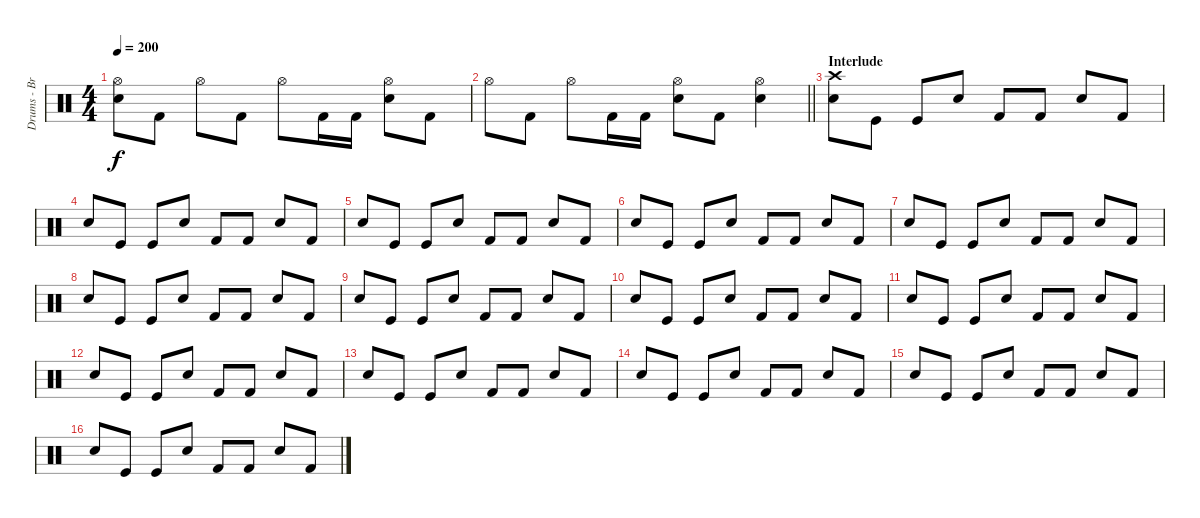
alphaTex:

\track ("Drums - Brandon Barnes" "Drums - Br") {instrument percussion}
\staff {score}
\articulation defaults
\ts (4 4)
\tempo 200
\clef neutral
\ks c
("Electric Snare (hit)" "Hi-Hat (open)").8{dy f} "Kick (hit) 2".8 "Hi-Hat (open)".8 "Kick (hit) 2".8 "Hi-Hat (open)".8 "Kick (hit) 2".16 "Kick (hit) 2".16 ("Electric Snare (hit)" "Hi-Hat (open)").8 "Kick (hit) 2".8 |
\barLineRight lightlight "Hi-Hat (open)".8 "Kick (hit) 2".8 "Hi-Hat (open)".8 "Kick (hit) 2".16 "Kick (hit) 2".16
("Electric Snare (hit)" "Hi-Hat (open)").8 "Kick (hit) 2".8 ("Snare (hit) 2" "Hi-Hat (open)").4 |
\section ("" "Interlude")
("Snare (hit) 2" "Crash high (hit)").8 "Kick (hit)".8 "Kick (hit)".8 "Snare (hit) 2".8 "Kick (hit) 2".8 "Kick (hit) 2".8 "Snare (hit) 2".8 "Kick (hit) 2".8 |
"Snare (hit) 2".8 "Kick (hit)".8 "Kick (hit)".8 "Snare (hit) 2".8 "Kick (hit) 2".8 "Kick (hit) 2".8 "Snare (hit) 2".8 "Kick (hit) 2".8 |
"Snare (hit) 2".8 "Kick (hit)".8 "Kick (hit)".8 "Snare (hit) 2".8 "Kick (hit) 2".8 "Kick (hit) 2".8 "Snare (hit) 2".8 "Kick (hit) 2".8 |
"Snare (hit) 2".8 "Kick (hit)".8 "Kick (hit)".8 "Snare (hit) 2".8 "Kick (hit) 2".8 "Kick (hit) 2".8 "Snare (hit) 2".8 "Kick (hit) 2".8 |
"Snare (hit) 2".8 "Kick (hit)".8 "Kick (hit)".8 "Snare (hit) 2".8 "Kick (hit) 2".8 "Kick (hit) 2".8 "Snare (hit) 2".8 "Kick (hit) 2".8 |
"Snare (hit) 2".8 "Kick (hit)".8 "Kick (hit)".8 "Snare (hit) 2".8 "Kick (hit) 2".8 "Kick (hit) 2".8 "Snare (hit) 2".8 "Kick (hit) 2".8 |
"Snare (hit) 2".8 "Kick (hit)".8 "Kick (hit)".8 "Snare (hit) 2".8 "Kick (hit) 2".8 "Kick (hit) 2".8 "Snare (hit) 2".8 "Kick (hit) 2".8 |
"Snare (hit) 2".8 "Kick (hit)".8 "Kick (hit)".8 "Snare (hit) 2".8 "Kick (hit) 2".8 "Kick (hit) 2".8 "Snare (hit) 2".8 "Kick (hit) 2".8 |
"Snare (hit) 2".8 "Kick (hit)".8 "Kick (hit)".8 "Snare (hit) 2".8 "Kick (hit) 2".8 "Kick (hit) 2".8 "Snare (hit) 2".8 "Kick (hit) 2".8 |
"Snare (hit) 2".8 "Kick (hit)".8 "Kick (hit)".8 "Snare (hit) 2".8 "Kick (hit) 2".8 "Kick (hit) 2".8 "Snare (hit) 2".8 "Kick (hit) 2".8 |
"Snare (hit) 2".8 "Kick (hit)".8 "Kick (hit)".8 "Snare (hit) 2".8 "Kick (hit) 2".8 "Kick (hit) 2".8 "Snare (hit) 2".8 "Kick (hit) 2".8 |
"Snare (hit) 2".8 "Kick (hit)".8 "Kick (hit)".8 "Snare (hit) 2".8 "Kick (hit) 2".8 "Kick (hit) 2".8 "Snare (hit) 2".8 "Kick (hit) 2".8 |
"Snare (hit) 2".8 "Kick (hit)".8 "Kick (hit)".8 "Snare (hit) 2".8 "Kick (hit) 2".8 "Kick (hit) 2".8 "Snare (hit) 2".8 "Kick (hit) 2".8 |
"Snare (hit) 2".8 "Kick (hit)".8 "Kick (hit)".8 "Snare (hit) 2".8 "Kick (hit) 2".8 "Kick (hit) 2".8 "Snare (hit) 2".8 "Kick (hit) 2".8
